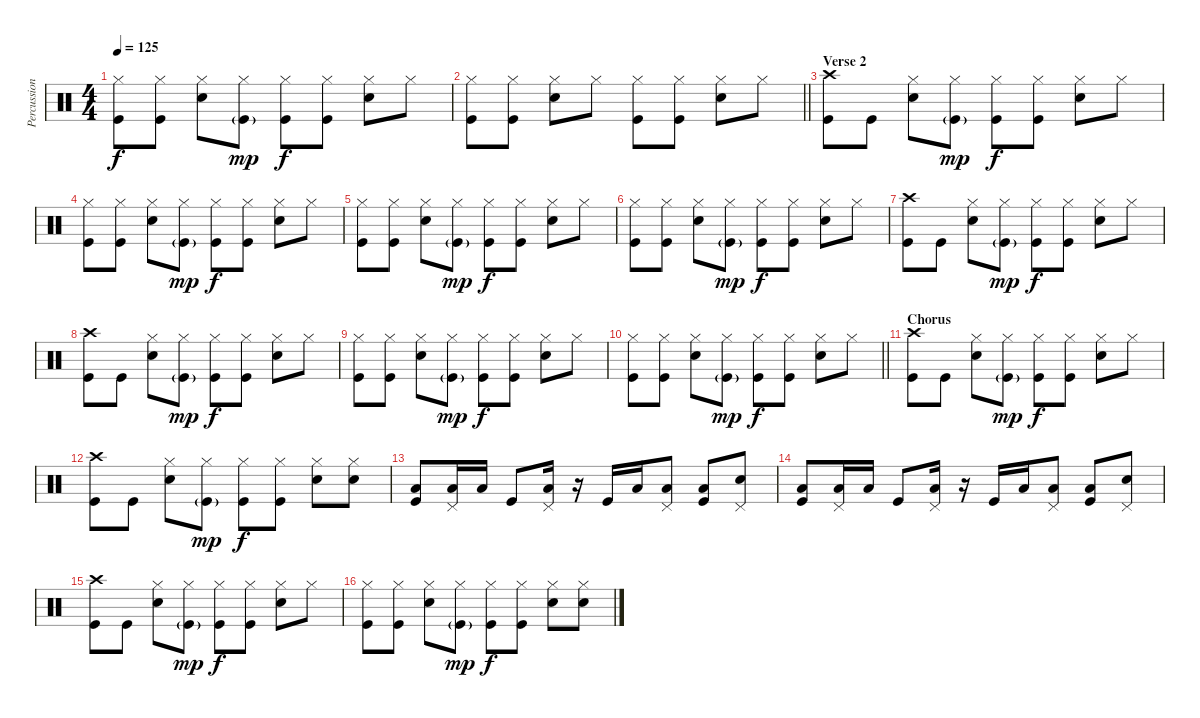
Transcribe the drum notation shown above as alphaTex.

\track ("Percussion" "Percussion") {instrument percussion}
\staff {score}
\articulation defaults
\ts (4 4)
\tempo 125
\clef neutral
\ks c
("Hi-Hat (closed)" "Kick (hit)").8{dy f} ("Hi-Hat (closed)" "Kick (hit)").8 ("Hi-Hat (closed)" "Snare (hit) 2").8 ("Hi-Hat (closed)" "Kick (hit)"{g}).8{dy mp} ("Hi-Hat (closed)" "Kick (hit)").8{dy f} ("Hi-Hat (closed)" "Kick (hit)").8 ("Hi-Hat (closed)" "Snare (hit) 2").8 "Hi-Hat (closed)".8 |
\barLineRight lightlight
("Hi-Hat (closed)" "Kick (hit)").8 ("Hi-Hat (closed)" "Kick (hit)").8 ("Hi-Hat (closed)" "Snare (hit) 2").8 "Hi-Hat (closed)".8 ("Hi-Hat (closed)" "Kick (hit)").8 ("Hi-Hat (closed)" "Kick (hit)").8 ("Hi-Hat (closed)" "Snare (hit) 2").8 "Hi-Hat (closed)".8 |
\section ("" "Verse 2")
("Crash high (hit)" "Kick (hit)").8 "Kick (hit)".8 ("Hi-Hat (closed)" "Snare (hit) 2").8 ("Hi-Hat (closed)" "Kick (hit)"{g}).8{dy mp} ("Hi-Hat (closed)" "Kick (hit)").8{dy f} ("Hi-Hat (closed)" "Kick (hit)").8 ("Hi-Hat (closed)" "Snare (hit) 2").8 "Hi-Hat (closed)".8 |
("Hi-Hat (closed)" "Kick (hit)").8 ("Hi-Hat (closed)" "Kick (hit)").8 ("Hi-Hat (closed)" "Snare (hit) 2").8 ("Hi-Hat (closed)" "Kick (hit)"{g}).8{dy mp} ("Hi-Hat (closed)" "Kick (hit)").8{dy f} ("Hi-Hat (closed)" "Kick (hit)").8 ("Hi-Hat (closed)" "Snare (hit) 2").8 "Hi-Hat (closed)".8 |
("Hi-Hat (closed)" "Kick (hit)").8 ("Hi-Hat (closed)" "Kick (hit)").8 ("Hi-Hat (closed)" "Snare (hit) 2").8 ("Hi-Hat (closed)" "Kick (hit)"{g}).8{dy mp} ("Hi-Hat (closed)" "Kick (hit)").8{dy f} ("Hi-Hat (closed)" "Kick (hit)").8 ("Hi-Hat (closed)" "Snare (hit) 2").8 "Hi-Hat (closed)".8 |
("Hi-Hat (closed)" "Kick (hit)").8 ("Hi-Hat (closed)" "Kick (hit)").8 ("Hi-Hat (closed)" "Snare (hit) 2").8 ("Hi-Hat (closed)" "Kick (hit)"{g}).8{dy mp} ("Hi-Hat (closed)" "Kick (hit)").8{dy f} ("Hi-Hat (closed)" "Kick (hit)").8 ("Hi-Hat (closed)" "Snare (hit) 2").8 "Hi-Hat (closed)".8 |
("Crash high (hit)" "Kick (hit)").8 "Kick (hit)".8 ("Hi-Hat (closed)" "Snare (hit) 2").8 ("Hi-Hat (closed)" "Kick (hit)"{g}).8{dy mp} ("Hi-Hat (closed)" "Kick (hit)").8{dy f} ("Hi-Hat (closed)" "Kick (hit)").8 ("Hi-Hat (closed)" "Snare (hit) 2").8 "Hi-Hat (closed)".8 |
("Crash high (hit)" "Kick (hit)").8 "Kick (hit)".8 ("Hi-Hat (closed)" "Snare (hit) 2").8 ("Hi-Hat (closed)" "Kick (hit)"{g}).8{dy mp} ("Hi-Hat (closed)" "Kick (hit)").8{dy f} ("Hi-Hat (closed)" "Kick (hit)").8 ("Hi-Hat (closed)" "Snare (hit) 2").8 "Hi-Hat (closed)".8 |
("Hi-Hat (closed)" "Kick (hit)").8 ("Hi-Hat (closed)" "Kick (hit)").8 ("Hi-Hat (closed)" "Snare (hit) 2").8 ("Hi-Hat (closed)" "Kick (hit)"{g}).8{dy mp} ("Hi-Hat (closed)" "Kick (hit)").8{dy f} ("Hi-Hat (closed)" "Kick (hit)").8 ("Hi-Hat (closed)" "Snare (hit) 2").8 "Hi-Hat (closed)".8 |
\barLineRight lightlight
("Hi-Hat (closed)" "Kick (hit)").8 ("Hi-Hat (closed)" "Kick (hit)").8 ("Hi-Hat (closed)" "Snare (hit) 2").8 ("Hi-Hat (closed)" "Kick (hit)"{g}).8{dy mp} ("Hi-Hat (closed)" "Kick (hit)").8{dy f} ("Hi-Hat (closed)" "Kick (hit)").8 ("Hi-Hat (closed)" "Snare (hit) 2").8 "Hi-Hat (closed)".8 |
\section ("" "Chorus")
("Crash high (hit)" "Kick (hit)").8 "Kick (hit)".8 ("Hi-Hat (closed)" "Snare (hit) 2").8 ("Hi-Hat (closed)" "Kick (hit)"{g}).8{dy mp} ("Hi-Hat (closed)" "Kick (hit)").8{dy f} ("Hi-Hat (closed)" "Kick (hit)").8 ("Hi-Hat (closed)" "Snare (hit) 2").8 "Hi-Hat (closed)".8 |
("Crash high (hit)" "Kick (hit)").8 "Kick (hit)".8 ("Hi-Hat (closed)" "Snare (hit) 2").8 ("Hi-Hat (closed)" "Kick (hit)"{g}).8{dy mp} ("Hi-Hat (closed)" "Kick (hit)").8{dy f} ("Hi-Hat (closed)" "Kick (hit)").8 ("Hi-Hat (closed)" "Snare (hit) 2").8 ("Hi-Hat (closed)" "Snare (hit) 2").8 |
("Low Tom (hit)" "Kick (hit)").8 ("Low Tom (hit)" "Pedal Hi-Hat (hit)").16 "Low Tom (hit)".16 "Kick (hit)".8 ("Low Floor Tom (hit)" "Pedal Hi-Hat (hit)").16 r.16 "Kick (hit)".16 "Low Tom (hit)".16 ("Low Tom (hit)" "Pedal Hi-Hat (hit)").8 ("Low Tom (hit)" "Kick (hit)").8 ("Snare (hit) 2" "Pedal Hi-Hat (hit)").8 |
("Low Tom (hit)" "Kick (hit)").8 ("Low Tom (hit)" "Pedal Hi-Hat (hit)").16 "Low Tom (hit)".16 "Kick (hit)".8 ("Low Floor Tom (hit)" "Pedal Hi-Hat (hit)").16 r.16 "Kick (hit)".16 "Low Tom (hit)".16 ("Low Tom (hit)" "Pedal Hi-Hat (hit)").8 ("Low Tom (hit)" "Kick (hit)").8 ("Snare (hit) 2" "Pedal Hi-Hat (hit)").8 |
("Crash high (hit)" "Kick (hit)").8 "Kick (hit)".8 ("Hi-Hat (closed)" "Snare (hit) 2").8 ("Hi-Hat (closed)" "Kick (hit)"{g}).8{dy mp} ("Hi-Hat (closed)" "Kick (hit)").8{dy f} ("Hi-Hat (closed)" "Kick (hit)").8 ("Hi-Hat (closed)" "Snare (hit) 2").8 "Hi-Hat (closed)".8 |
("Hi-Hat (closed)" "Kick (hit)").8 ("Hi-Hat (closed)" "Kick (hit)").8 ("Hi-Hat (closed)" "Snare (hit) 2").8 ("Hi-Hat (closed)" "Kick (hit)"{g}).8{dy mp} ("Hi-Hat (closed)" "Kick (hit)").8{dy f} ("Hi-Hat (closed)" "Kick (hit)").8 ("Hi-Hat (closed)" "Snare (hit) 2").8 ("Hi-Hat (closed)" "Snare (hit) 2").8
